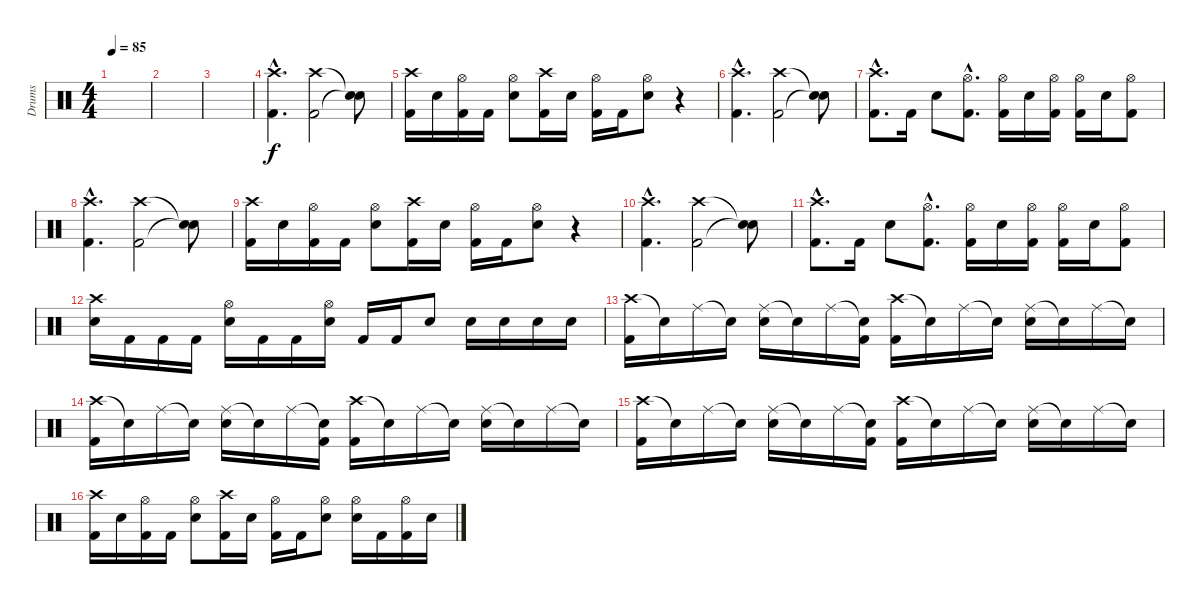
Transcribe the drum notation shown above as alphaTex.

\track ("Drums" "Drums") {instrument percussion}
\staff {score}
\articulation defaults
\ts (4 4)
\tempo 85
\clef neutral
\ks c
|
|
|
("Crash high (hit)"{hac} "Kick (hit) 2"{hac}).4{d} ("Crash high (hit)" "Kick (hit) 2").2 ("Snare (hit)"{t} "Snare (hit)"{t}).8 |
("Crash high (hit)" "Kick (hit) 2").16 "Snare (hit) 2".16 ("Hi-Hat (open)" "Kick (hit) 2").16 "Kick (hit) 2".16 ("Hi-Hat (open)" "Snare (hit) 2").8 ("Crash high (hit)" "Kick (hit) 2").16 "Snare (hit) 2".16 ("Hi-Hat (open)" "Kick (hit) 2").16 "Kick (hit) 2".16 ("Hi-Hat (open)" "Snare (hit) 2").8 r.4 |
("Crash high (hit)"{hac} "Kick (hit) 2"{hac}).4{d} ("Crash high (hit)" "Kick (hit) 2").2 ("Snare (hit)"{t} "Snare (hit)"{t}).8 |
("Crash high (hit)"{hac} "Kick (hit) 2"{hac}).8{d} "Kick (hit) 2".16 "Snare (hit) 2".8 ("Hi-Hat (open)"{hac} "Kick (hit) 2"{hac}).8{d} ("Hi-Hat (open)" "Kick (hit) 2").16 "Snare (hit) 2".16 ("Hi-Hat (open)" "Kick (hit) 2").16 ("Hi-Hat (open)" "Kick (hit) 2").16 "Snare (hit) 2".16 ("Hi-Hat (open)" "Kick (hit) 2").8 |
("Crash high (hit)"{hac} "Kick (hit) 2"{hac}).4{d} ("Crash high (hit)" "Kick (hit) 2").2 ("Snare (hit)"{t} "Snare (hit)"{t}).8 |
("Crash high (hit)" "Kick (hit) 2").16 "Snare (hit) 2".16 ("Hi-Hat (open)" "Kick (hit) 2").16 "Kick (hit) 2".16 ("Hi-Hat (open)" "Snare (hit) 2").8 ("Crash high (hit)" "Kick (hit) 2").16 "Snare (hit) 2".16 ("Hi-Hat (open)" "Kick (hit) 2").16 "Kick (hit) 2".16 ("Hi-Hat (open)" "Snare (hit) 2").8 r.4 |
("Crash high (hit)"{hac} "Kick (hit) 2"{hac}).4{d} ("Crash high (hit)" "Kick (hit) 2").2 ("Snare (hit)"{t} "Snare (hit)"{t}).8 |
("Crash high (hit)"{hac} "Kick (hit) 2"{hac}).8{d} "Kick (hit) 2".16 "Snare (hit) 2".8 ("Hi-Hat (open)"{hac} "Kick (hit) 2"{hac}).8{d} ("Hi-Hat (open)" "Kick (hit) 2").16 "Snare (hit) 2".16 ("Hi-Hat (open)" "Kick (hit) 2").16 ("Hi-Hat (open)" "Kick (hit) 2").16 "Snare (hit) 2".16 ("Hi-Hat (open)" "Kick (hit) 2").8 |
("Crash high (hit)" "Snare (hit) 2").16 "Kick (hit) 2".16 "Kick (hit) 2".16 "Kick (hit) 2".16 ("Hi-Hat (open)" "Snare (hit) 2").16 "Kick (hit) 2".16 "Kick (hit) 2".16 ("Hi-Hat (open)" "Snare (hit) 2").16 "Kick (hit) 2".16 "Kick (hit) 2".16 "Snare (hit) 2".8 "Snare (hit) 2".16 "Snare (hit) 2".16 "Snare (hit) 2".16 "Snare (hit) 2".16 |
("Crash high (hit)" "Kick (hit) 2").16 "Snare (hit)"{t}.16 "Ride (middle)".16 "Snare (hit)"{t}.16 ("Ride (middle)" "Snare (hit) 2").16 "Snare (hit)"{t}.16 "Ride (middle)".16 ("Snare (hit)"{t} "Kick (hit) 2").16 ("Crash high (hit)" "Kick (hit) 2").16 "Snare (hit)"{t}.16 "Ride (middle)".16 "Snare (hit)"{t}.16 ("Ride (middle)" "Snare (hit) 2").16 "Snare (hit)"{t}.16 "Ride (middle)".16 "Snare (hit)"{t}.16 |
("Crash high (hit)" "Kick (hit) 2").16 "Snare (hit)"{t}.16 "Ride (middle)".16 "Snare (hit)"{t}.16 ("Ride (middle)" "Snare (hit) 2").16 "Snare (hit)"{t}.16 "Ride (middle)".16 ("Snare (hit)"{t} "Kick (hit) 2").16 ("Crash high (hit)" "Kick (hit) 2").16 "Snare (hit)"{t}.16 "Ride (middle)".16 "Snare (hit)"{t}.16 ("Ride (middle)" "Snare (hit) 2").16 "Snare (hit)"{t}.16 "Ride (middle)".16 "Snare (hit)"{t}.16 |
("Crash high (hit)" "Kick (hit) 2").16 "Snare (hit)"{t}.16 "Ride (middle)".16 "Snare (hit)"{t}.16 ("Ride (middle)" "Snare (hit) 2").16 "Snare (hit)"{t}.16 "Ride (middle)".16 ("Snare (hit)"{t} "Kick (hit) 2").16 ("Crash high (hit)" "Kick (hit) 2").16 "Snare (hit)"{t}.16 "Ride (middle)".16 "Snare (hit)"{t}.16 ("Ride (middle)" "Snare (hit) 2").16 "Snare (hit)"{t}.16 "Ride (middle)".16 "Snare (hit)"{t}.16 |
("Crash high (hit)" "Kick (hit) 2").16 "Snare (hit) 2".16 ("Hi-Hat (open)" "Kick (hit) 2").16 "Kick (hit) 2".16 ("Hi-Hat (open)" "Snare (hit) 2").8 ("Crash high (hit)" "Kick (hit) 2").16 "Snare (hit) 2".16 ("Hi-Hat (open)" "Kick (hit) 2").16 "Kick (hit) 2".16 ("Hi-Hat (open)" "Snare (hit) 2").8 ("Hi-Hat (open)" "Snare (hit) 2").16 "Kick (hit) 2".16 ("Hi-Hat (open)" "Kick (hit) 2").16 "Snare (hit) 2".16
